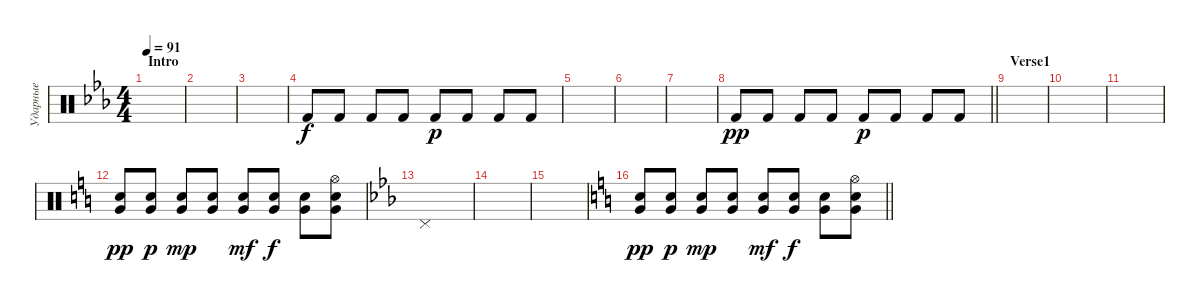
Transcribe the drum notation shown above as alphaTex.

\track ("Ударные" "Ударные") {instrument percussion}
\staff {score}
\articulation defaults
\ts (4 4)
\section ("" "Intro")
\tempo 91
\clef neutral
\ks eb
|
|
|
"Kick (hit) 2".8 "Kick (hit) 2".8 "Kick (hit) 2".8 "Kick (hit) 2".8 "Kick (hit) 2".8{dy p} "Kick (hit) 2".8 "Kick (hit) 2".8 "Kick (hit) 2".8 |
|
|
|
\barLineRight lightlight "Kick (hit) 2".8{dy pp} "Kick (hit) 2".8 "Kick (hit) 2".8 "Kick (hit) 2".8 "Kick (hit) 2".8{dy p} "Kick (hit) 2".8 "Kick (hit) 2".8 "Kick (hit) 2".8
|
\section ("" "Verse1")
|
|
|
\ks c
("Very Low Tom (hit)" "Snare (hit) 2").8{dy pp} ("Very Low Tom (hit)" "Snare (hit) 2").8{dy p} ("Very Low Tom (hit)" "Snare (hit) 2").8{dy mp} ("Very Low Tom (hit)" "Snare (hit) 2").8 ("Very Low Tom (hit)" "Snare (hit) 2").8{dy mf} ("Very Low Tom (hit)" "Snare (hit) 2").8{dy f} ("Very Low Tom (hit)" "Snare (hit) 2").8 ("Hi-Hat (open)" "Very Low Tom (hit)" "Snare (hit) 2").8 |
\ks eb "Pedal Hi-Hat (hit)".1
|
|
|
\barLineRight lightlight
\ks c
("Very Low Tom (hit)" "Snare (hit) 2").8{dy pp} ("Very Low Tom (hit)" "Snare (hit) 2").8{dy p} ("Very Low Tom (hit)" "Snare (hit) 2").8{dy mp} ("Very Low Tom (hit)" "Snare (hit) 2").8 ("Very Low Tom (hit)" "Snare (hit) 2").8{dy mf} ("Very Low Tom (hit)" "Snare (hit) 2").8{dy f} ("Very Low Tom (hit)" "Snare (hit) 2").8 ("Hi-Hat (open)" "Very Low Tom (hit)" "Snare (hit) 2").8
